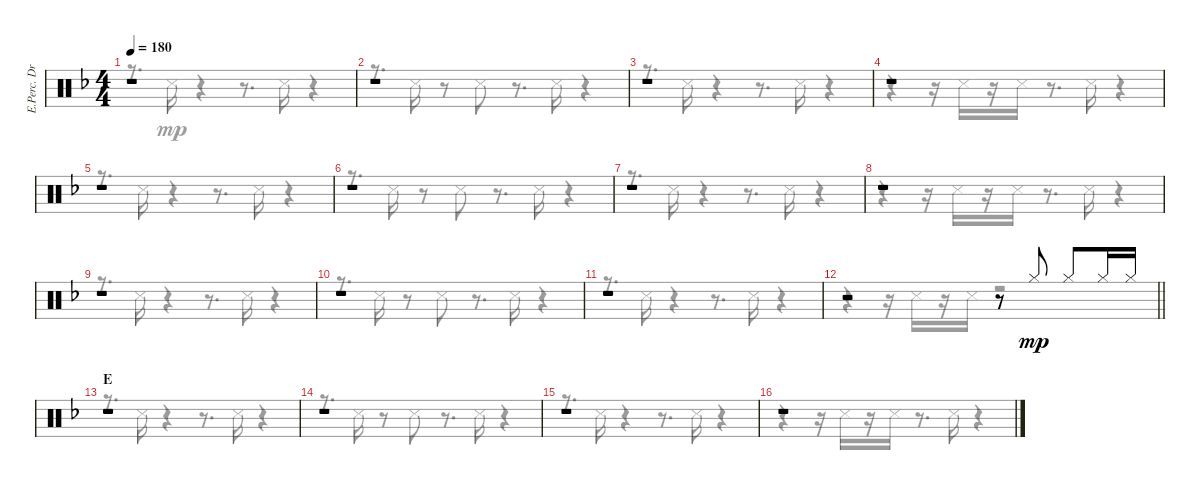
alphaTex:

\track ("E.Perc. Drums" "E.Perc. Dr") {instrument percussion}
\staff {score}
\articulation defaults
\voice
\ts (4 4)
\tempo 180
\clef neutral
\ks f
r.1{dy mp} |
r.1 |
r.1 |
r.1 |
r.1 |
r.1 |
r.1 |
r.1 |
r.1 |
r.1 |
r.1 |
\barLineRight lightlight
r.2 r.8 "Hi-Hat (closed)".8 "Hi-Hat (closed)".8 "Hi-Hat (closed)".16 "Hi-Hat (closed)".16 |
\section ("" "E")
r.1 |
r.1 |
r.1 |
r.1
\voice
\clef neutral
\ottava regular
\simile none
\ks f
r.8{d dy mp} "Snare (side stick) 3".16 r.4 r.8{d} "Snare (side stick) 3".16 r.4 |
r.8{d} "Snare (side stick) 3".16 r.8 "Snare (side stick) 3".8 r.8{d} "Snare (side stick) 3".16 r.4 |
r.8{d} "Snare (side stick) 3".16 r.4 r.8{d} "Snare (side stick) 3".16 r.4 |
r.4 r.16 "Snare (side stick) 3".16 r.16 "Snare (side stick) 3".16 r.8{d} "Snare (side stick) 3".16 r.4 |
r.8{d} "Snare (side stick) 3".16 r.4 r.8{d} "Snare (side stick) 3".16 r.4 |
r.8{d} "Snare (side stick) 3".16 r.8 "Snare (side stick) 3".8 r.8{d} "Snare (side stick) 3".16 r.4 |
r.8{d} "Snare (side stick) 3".16 r.4 r.8{d} "Snare (side stick) 3".16 r.4 |
r.4 r.16 "Snare (side stick) 3".16 r.16 "Snare (side stick) 3".16 r.8{d} "Snare (side stick) 3".16 r.4 |
r.8{d} "Snare (side stick) 3".16 r.4 r.8{d} "Snare (side stick) 3".16 r.4 |
r.8{d} "Snare (side stick) 3".16 r.8 "Snare (side stick) 3".8 r.8{d} "Snare (side stick) 3".16 r.4 |
r.8{d} "Snare (side stick) 3".16 r.4 r.8{d} "Snare (side stick) 3".16 r.4 |
\barLineRight lightlight
r.4 r.16 "Snare (side stick) 3".16 r.16 "Snare (side stick) 3".16 r.2 |
r.8{d} "Snare (side stick) 3".16 r.4 r.8{d} "Snare (side stick) 3".16 r.4 |
r.8{d} "Snare (side stick) 3".16 r.8 "Snare (side stick) 3".8 r.8{d} "Snare (side stick) 3".16 r.4 |
r.8{d} "Snare (side stick) 3".16 r.4 r.8{d} "Snare (side stick) 3".16 r.4 |
r.4 r.16 "Snare (side stick) 3".16 r.16 "Snare (side stick) 3".16 r.8{d} "Snare (side stick) 3".16 r.4
